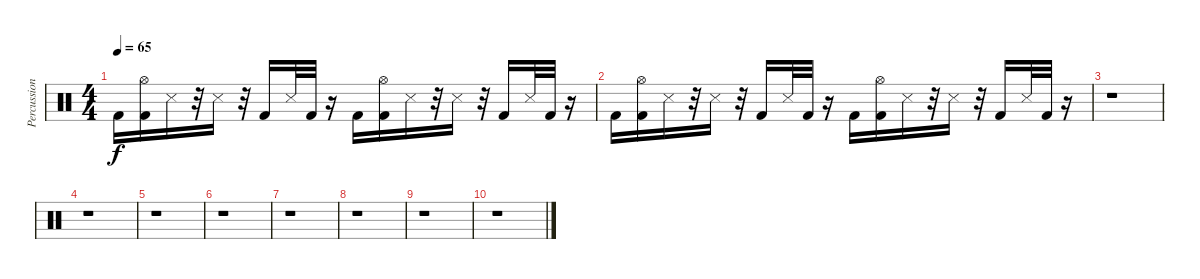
\track ("Percussion 1" "Percussion") {instrument percussion}
\staff {score}
\articulation defaults
\ts (4 4)
\tempo 65
\clef neutral
\ks c "Kick (hit) 2".16{dy f}
("Hi-Hat (open)" "Kick (hit) 2").16 "Snare (side stick) 3".16 r.32 "Snare (side stick) 3".16 r.32 "Kick (hit) 2".16 "Snare (side stick) 3".32 "Kick (hit) 2".32 r.16 "Kick (hit) 2".16 ("Hi-Hat (open)" "Kick (hit) 2").16 "Snare (side stick) 3".16 r.32 "Snare (side stick) 3".16 r.32 "Kick (hit) 2".16 "Snare (side stick) 3".32 "Kick (hit) 2".32 r.16 |
"Kick (hit) 2".16 ("Hi-Hat (open)" "Kick (hit) 2").16 "Snare (side stick) 3".16 r.32 "Snare (side stick) 3".16 r.32 "Kick (hit) 2".16 "Snare (side stick) 3".32 "Kick (hit) 2".32 r.16 "Kick (hit) 2".16 ("Hi-Hat (open)" "Kick (hit) 2").16 "Snare (side stick) 3".16 r.32 "Snare (side stick) 3".16 r.32 "Kick (hit) 2".16 "Snare (side stick) 3".32 "Kick (hit) 2".32 r.16 |
\section ("" "")
r.1 |
r.1 |
r.1 |
r.1 |
\section ("" "")
r.1 |
r.1 |
r.1 |
r.1
